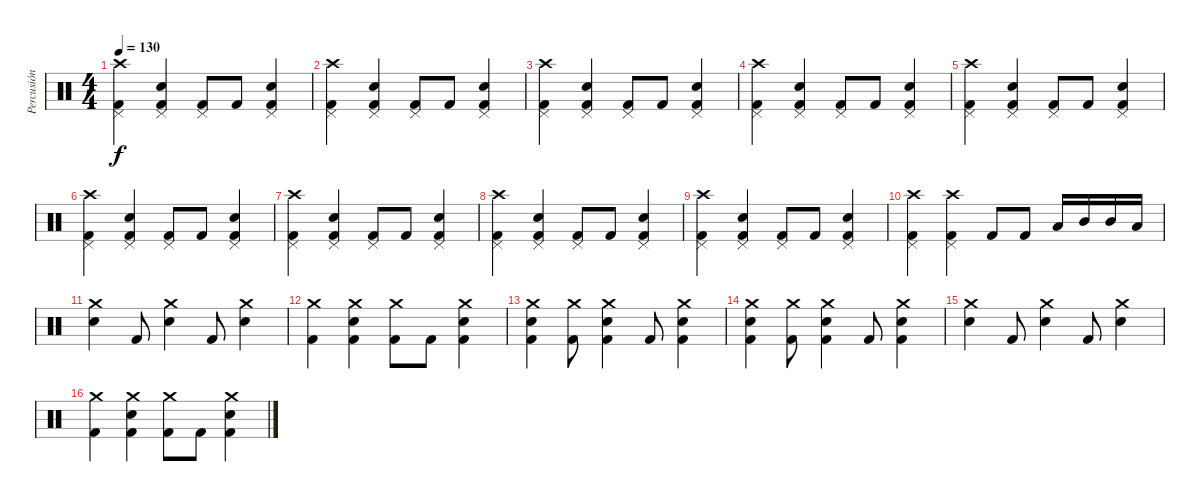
\track ("Percusión" "Percusión") {instrument percussion}
\staff {score}
\articulation defaults
\ts (4 4)
\tempo 130
\clef neutral
\ks c
("Crash high (hit)" "Pedal Hi-Hat (hit)" "Kick (hit) 2").4{dy f} ("Pedal Hi-Hat (hit)" "Electric Snare (hit)" "Kick (hit) 2").4 ("Pedal Hi-Hat (hit)" "Kick (hit) 2").8 "Kick (hit) 2".8 ("Pedal Hi-Hat (hit)" "Kick (hit) 2" "Electric Snare (hit)").4 |
("Crash high (hit)" "Pedal Hi-Hat (hit)" "Kick (hit) 2").4 ("Pedal Hi-Hat (hit)" "Electric Snare (hit)" "Kick (hit) 2").4 ("Pedal Hi-Hat (hit)" "Kick (hit) 2").8 "Kick (hit) 2".8 ("Pedal Hi-Hat (hit)" "Kick (hit) 2" "Electric Snare (hit)").4 |
("Crash high (hit)" "Pedal Hi-Hat (hit)" "Kick (hit) 2").4 ("Pedal Hi-Hat (hit)" "Electric Snare (hit)" "Kick (hit) 2").4 ("Pedal Hi-Hat (hit)" "Kick (hit) 2").8 "Kick (hit) 2".8 ("Pedal Hi-Hat (hit)" "Kick (hit) 2" "Electric Snare (hit)").4 |
("Crash high (hit)" "Pedal Hi-Hat (hit)" "Kick (hit) 2").4 ("Pedal Hi-Hat (hit)" "Electric Snare (hit)" "Kick (hit) 2").4 ("Pedal Hi-Hat (hit)" "Kick (hit) 2").8 "Kick (hit) 2".8 ("Pedal Hi-Hat (hit)" "Kick (hit) 2" "Electric Snare (hit)").4 |
("Crash high (hit)" "Pedal Hi-Hat (hit)" "Kick (hit) 2").4 ("Pedal Hi-Hat (hit)" "Electric Snare (hit)" "Kick (hit) 2").4 ("Pedal Hi-Hat (hit)" "Kick (hit) 2").8 "Kick (hit) 2".8 ("Pedal Hi-Hat (hit)" "Kick (hit) 2" "Electric Snare (hit)").4 |
("Crash high (hit)" "Pedal Hi-Hat (hit)" "Kick (hit) 2").4 ("Pedal Hi-Hat (hit)" "Electric Snare (hit)" "Kick (hit) 2").4 ("Pedal Hi-Hat (hit)" "Kick (hit) 2").8 "Kick (hit) 2".8 ("Pedal Hi-Hat (hit)" "Kick (hit) 2" "Electric Snare (hit)").4 |
("Crash high (hit)" "Pedal Hi-Hat (hit)" "Kick (hit) 2").4 ("Pedal Hi-Hat (hit)" "Electric Snare (hit)" "Kick (hit) 2").4 ("Pedal Hi-Hat (hit)" "Kick (hit) 2").8 "Kick (hit) 2".8 ("Pedal Hi-Hat (hit)" "Kick (hit) 2" "Electric Snare (hit)").4 |
("Crash high (hit)" "Pedal Hi-Hat (hit)" "Kick (hit) 2").4 ("Pedal Hi-Hat (hit)" "Electric Snare (hit)" "Kick (hit) 2").4 ("Pedal Hi-Hat (hit)" "Kick (hit) 2").8 "Kick (hit) 2".8 ("Pedal Hi-Hat (hit)" "Kick (hit) 2" "Electric Snare (hit)").4 |
("Crash high (hit)" "Pedal Hi-Hat (hit)" "Kick (hit) 2").4 ("Pedal Hi-Hat (hit)" "Electric Snare (hit)" "Kick (hit) 2").4 ("Pedal Hi-Hat (hit)" "Kick (hit) 2").8 "Kick (hit) 2".8 ("Pedal Hi-Hat (hit)" "Kick (hit) 2" "Electric Snare (hit)").4 |
("Crash high (hit)" "Pedal Hi-Hat (hit)" "Kick (hit) 2").4 ("Crash high (hit)" "Pedal Hi-Hat (hit)" "Kick (hit) 2").4 "Kick (hit) 2".8 "Kick (hit) 2".8 "Low Tom (hit)".16 "Mid Tom (hit)".16 "Mid Tom (hit)".16 "Low Tom (hit)".16 |
("Crash medium (hit)" "Electric Snare (hit)").4 "Kick (hit) 2".8 ("Crash medium (hit)" "Electric Snare (hit)").4 "Kick (hit) 2".8 ("Crash medium (hit)" "Electric Snare (hit)").4 |
("Crash medium (hit)" "Kick (hit) 2").4 ("Crash medium (hit)" "Kick (hit) 2" "Electric Snare (hit)").4 ("Crash medium (hit)" "Kick (hit) 2").8 "Kick (hit) 2".8 ("Crash medium (hit)" "Kick (hit) 2" "Electric Snare (hit)").4 |
("Crash medium (hit)" "Kick (hit) 2" "Electric Snare (hit)").4 ("Crash medium (hit)" "Kick (hit) 2").8 ("Crash medium (hit)" "Kick (hit) 2" "Electric Snare (hit)").4 "Kick (hit) 2".8 ("Crash medium (hit)" "Kick (hit) 2" "Electric Snare (hit)").4 |
("Crash medium (hit)" "Kick (hit) 2" "Electric Snare (hit)").4 ("Crash medium (hit)" "Kick (hit) 2").8 ("Crash medium (hit)" "Kick (hit) 2" "Electric Snare (hit)").4 "Kick (hit) 2".8 ("Crash medium (hit)" "Kick (hit) 2" "Electric Snare (hit)").4 |
("Crash medium (hit)" "Electric Snare (hit)").4 "Kick (hit) 2".8 ("Crash medium (hit)" "Electric Snare (hit)").4 "Kick (hit) 2".8 ("Crash medium (hit)" "Electric Snare (hit)").4 |
("Crash medium (hit)" "Kick (hit) 2").4 ("Crash medium (hit)" "Kick (hit) 2" "Electric Snare (hit)").4 ("Crash medium (hit)" "Kick (hit) 2").8 "Kick (hit) 2".8 ("Crash medium (hit)" "Kick (hit) 2" "Electric Snare (hit)").4
